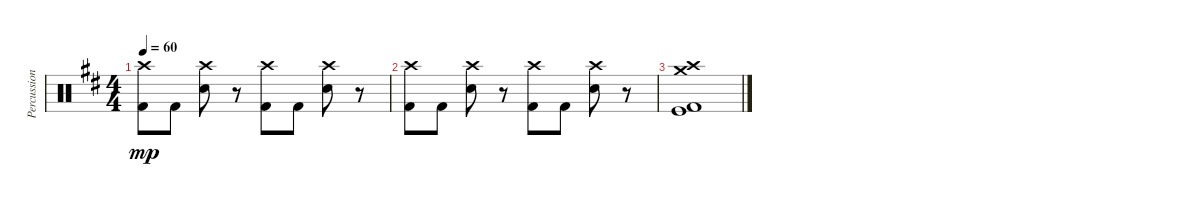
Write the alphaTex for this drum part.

\track ("Percussion" "Percussion") {instrument percussion}
\staff {score}
\articulation defaults
\ts (4 4)
\tempo 60
\clef neutral
\ks d
("Crash high (hit)" "Kick (hit) 2").8{dy mp} "Kick (hit) 2".8 ("Crash high (hit)" "Snare (hit) 2").8 r.8 ("Crash high (hit)" "Kick (hit) 2").8 "Kick (hit) 2".8 ("Crash high (hit)" "Snare (hit) 2").8 r.8 |
("Crash high (hit)" "Kick (hit) 2").8 "Kick (hit) 2".8 ("Crash high (hit)" "Snare (hit) 2").8 r.8 ("Crash high (hit)" "Kick (hit) 2").8 "Kick (hit) 2".8 ("Crash high (hit)" "Snare (hit) 2").8 r.8 |
("Crash high (hit)" "Crash medium (hit)" "Kick (hit)" "Kick (hit) 2").1
